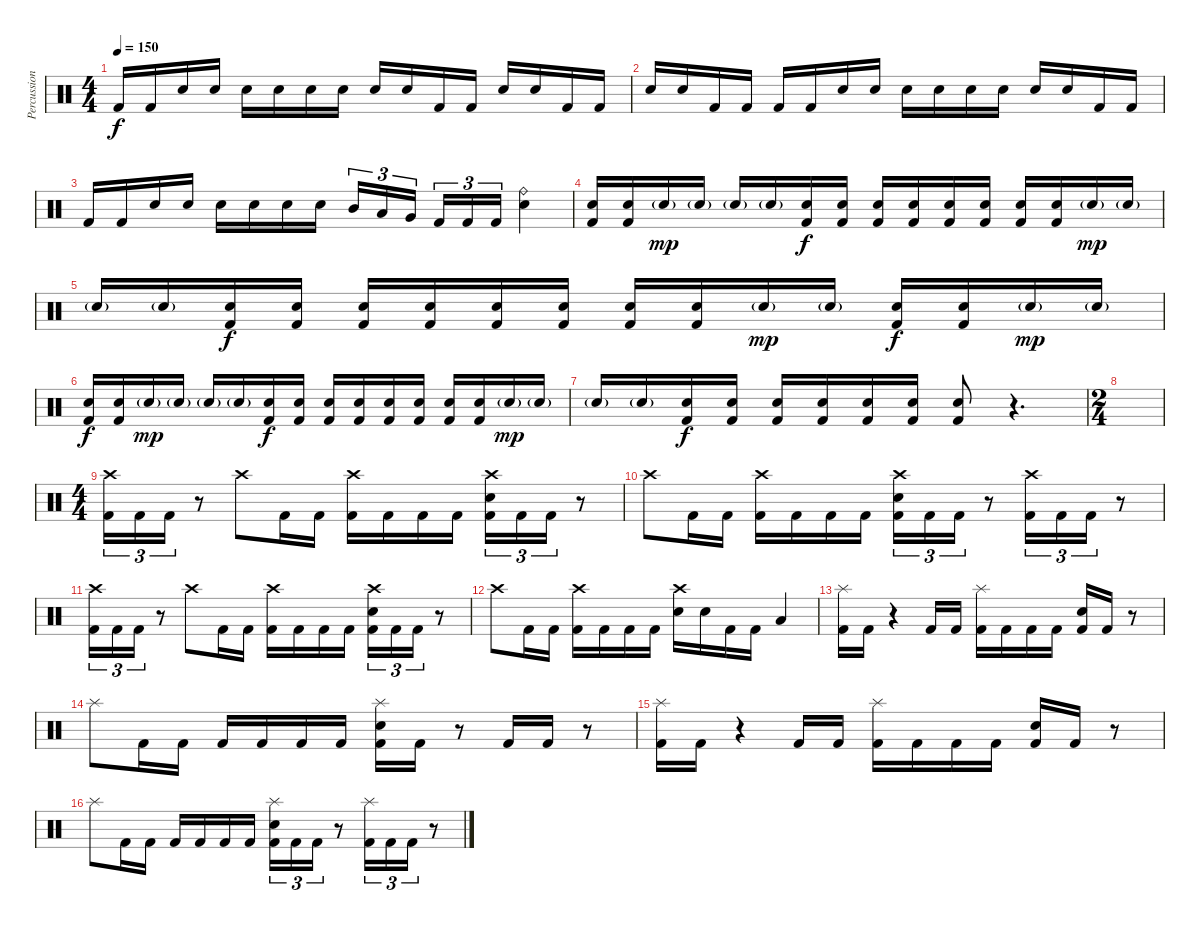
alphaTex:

\track ("Percussion" "Percussion") {instrument percussion}
\staff {score}
\articulation defaults
\ts (4 4)
\tempo 150
\clef neutral
\ks c "Kick (hit) 2".16{dy f} "Kick (hit) 2".16 "Electric Snare (hit)".16 "Electric Snare (hit)".16 "Electric Snare (hit)".16 "Electric Snare (hit)".16 "Electric Snare (hit)".16 "Electric Snare (hit)".16 "Electric Snare (hit)".16 "Electric Snare (hit)".16 "Kick (hit) 2".16 "Kick (hit) 2".16 "Electric Snare (hit)".16 "Electric Snare (hit)".16 "Kick (hit) 2".16 "Kick (hit) 2".16
|
"Electric Snare (hit)".16 "Electric Snare (hit)".16 "Kick (hit) 2".16 "Kick (hit) 2".16 "Kick (hit) 2".16 "Kick (hit) 2".16 "Electric Snare (hit)".16 "Electric Snare (hit)".16 "Electric Snare (hit)".16 "Electric Snare (hit)".16 "Electric Snare (hit)".16 "Electric Snare (hit)".16 "Electric Snare (hit)".16 "Electric Snare (hit)".16 "Kick (hit) 2".16 "Kick (hit) 2".16 |
"Kick (hit) 2".16 "Kick (hit) 2".16 "Electric Snare (hit)".16 "Electric Snare (hit)".16 "Electric Snare (hit)".16 "Electric Snare (hit)".16 "Electric Snare (hit)".16 "Electric Snare (hit)".16 "Mid Tom (hit)".16{tu (3 2)} "Low Tom (hit)".16{tu (3 2)} "Very Low Tom (hit)".16{tu (3 2) beam splitsecondary} "Kick (hit) 2".16{tu (3 2)} "Kick (hit) 2".16{tu (3 2)} "Kick (hit) 2".16{tu (3 2)} ("Ride (bell)" "Electric Snare (hit)").4 |
("Electric Snare (hit)" "Kick (hit) 2").16 ("Electric Snare (hit)" "Kick (hit) 2").16 "Electric Snare (hit)"{g}.16{dy mp} "Electric Snare (hit)"{g}.16 "Electric Snare (hit)"{g}.16 "Electric Snare (hit)"{g}.16 ("Electric Snare (hit)" "Kick (hit) 2").16{dy f} ("Electric Snare (hit)" "Kick (hit) 2").16 ("Electric Snare (hit)" "Kick (hit) 2").16 ("Electric Snare (hit)" "Kick (hit) 2").16 ("Electric Snare (hit)" "Kick (hit) 2").16 ("Electric Snare (hit)" "Kick (hit) 2").16 ("Electric Snare (hit)" "Kick (hit) 2").16 ("Electric Snare (hit)" "Kick (hit) 2").16 "Electric Snare (hit)"{g}.16{dy mp} "Electric Snare (hit)"{g}.16 |
"Electric Snare (hit)"{g}.16 "Electric Snare (hit)"{g}.16 ("Electric Snare (hit)" "Kick (hit) 2").16{dy f} ("Electric Snare (hit)" "Kick (hit) 2").16 ("Electric Snare (hit)" "Kick (hit) 2").16 ("Electric Snare (hit)" "Kick (hit) 2").16 ("Electric Snare (hit)" "Kick (hit) 2").16 ("Electric Snare (hit)" "Kick (hit) 2").16 ("Electric Snare (hit)" "Kick (hit) 2").16 ("Electric Snare (hit)" "Kick (hit) 2").16 "Electric Snare (hit)"{g}.16{dy mp} "Electric Snare (hit)"{g}.16 ("Electric Snare (hit)" "Kick (hit) 2").16{dy f} ("Electric Snare (hit)" "Kick (hit) 2").16 "Electric Snare (hit)"{g}.16{dy mp} "Electric Snare (hit)"{g}.16 |
("Electric Snare (hit)" "Kick (hit) 2").16{dy f} ("Electric Snare (hit)" "Kick (hit) 2").16 "Electric Snare (hit)"{g}.16{dy mp} "Electric Snare (hit)"{g}.16 "Electric Snare (hit)"{g}.16 "Electric Snare (hit)"{g}.16 ("Electric Snare (hit)" "Kick (hit) 2").16{dy f} ("Electric Snare (hit)" "Kick (hit) 2").16 ("Electric Snare (hit)" "Kick (hit) 2").16 ("Electric Snare (hit)" "Kick (hit) 2").16 ("Electric Snare (hit)" "Kick (hit) 2").16 ("Electric Snare (hit)" "Kick (hit) 2").16 ("Electric Snare (hit)" "Kick (hit) 2").16 ("Electric Snare (hit)" "Kick (hit) 2").16 "Electric Snare (hit)"{g}.16{dy mp} "Electric Snare (hit)"{g}.16 |
"Electric Snare (hit)"{g}.16 "Electric Snare (hit)"{g}.16 ("Electric Snare (hit)" "Kick (hit) 2").16{dy f} ("Electric Snare (hit)" "Kick (hit) 2").16 ("Electric Snare (hit)" "Kick (hit) 2").16 ("Electric Snare (hit)" "Kick (hit) 2").16 ("Electric Snare (hit)" "Kick (hit) 2").16 ("Electric Snare (hit)" "Kick (hit) 2").16 ("Electric Snare (hit)" "Kick (hit) 2").8 r.4{d} |
\ts (2 4)
|
\ts (4 4)
("Crash high (hit)" "Kick (hit) 2").16{tu (3 2)} "Kick (hit) 2".16{tu (3 2)} "Kick (hit) 2".16{tu (3 2)} r.8 "Crash high (hit)".8 "Kick (hit) 2".16 "Kick (hit) 2".16 ("Crash high (hit)" "Kick (hit) 2").16 "Kick (hit) 2".16 "Kick (hit) 2".16 "Kick (hit) 2".16 ("Crash high (hit)" "Electric Snare (hit)" "Kick (hit) 2").16{tu (3 2)} "Kick (hit) 2".16{tu (3 2)} "Kick (hit) 2".16{tu (3 2)} r.8 |
"Crash high (hit)".8 "Kick (hit) 2".16 "Kick (hit) 2".16 ("Crash high (hit)" "Kick (hit) 2").16 "Kick (hit) 2".16 "Kick (hit) 2".16 "Kick (hit) 2".16 ("Crash high (hit)" "Electric Snare (hit)" "Kick (hit) 2").16{tu (3 2)} "Kick (hit) 2".16{tu (3 2)} "Kick (hit) 2".16{tu (3 2)} r.8 ("Crash high (hit)" "Kick (hit) 2").16{tu (3 2)} "Kick (hit) 2".16{tu (3 2)} "Kick (hit) 2".16{tu (3 2)} r.8 |
("Crash high (hit)" "Kick (hit) 2").16{tu (3 2)} "Kick (hit) 2".16{tu (3 2)} "Kick (hit) 2".16{tu (3 2)} r.8 "Crash high (hit)".8 "Kick (hit) 2".16 "Kick (hit) 2".16 ("Crash high (hit)" "Kick (hit) 2").16 "Kick (hit) 2".16 "Kick (hit) 2".16 "Kick (hit) 2".16 ("Crash high (hit)" "Electric Snare (hit)" "Kick (hit) 2").16{tu (3 2)} "Kick (hit) 2".16{tu (3 2)} "Kick (hit) 2".16{tu (3 2)} r.8 |
"Crash high (hit)".8 "Kick (hit) 2".16 "Kick (hit) 2".16 ("Crash high (hit)" "Kick (hit) 2").16 "Kick (hit) 2".16 "Kick (hit) 2".16 "Kick (hit) 2".16 ("Crash high (hit)" "Electric Snare (hit)").16 "Electric Snare (hit)".16 "Kick (hit) 2".16 "Kick (hit) 2".16 "Low Floor Tom (hit)".4 |
("Splash (hit)" "Kick (hit) 2").16 "Kick (hit) 2".16 r.4 "Kick (hit) 2".16 "Kick (hit) 2".16 ("Splash (hit)" "Kick (hit) 2").16 "Kick (hit) 2".16 "Kick (hit) 2".16 "Kick (hit) 2".16 ("Electric Snare (hit)" "Kick (hit) 2").16 "Kick (hit) 2".16 r.8 |
"Splash (hit)".8 "Kick (hit) 2".16 "Kick (hit) 2".16 "Kick (hit) 2".16 "Kick (hit) 2".16 "Kick (hit) 2".16 "Kick (hit) 2".16 ("Splash (hit)" "Electric Snare (hit)" "Kick (hit) 2").16 "Kick (hit) 2".16 r.8 "Kick (hit) 2".16 "Kick (hit) 2".16 r.8 |
("Splash (hit)" "Kick (hit) 2").16 "Kick (hit) 2".16 r.4 "Kick (hit) 2".16 "Kick (hit) 2".16 ("Splash (hit)" "Kick (hit) 2").16 "Kick (hit) 2".16 "Kick (hit) 2".16 "Kick (hit) 2".16 ("Electric Snare (hit)" "Kick (hit) 2").16 "Kick (hit) 2".16 r.8 |
"Splash (hit)".8 "Kick (hit) 2".16 "Kick (hit) 2".16 "Kick (hit) 2".16 "Kick (hit) 2".16 "Kick (hit) 2".16 "Kick (hit) 2".16 ("Splash (hit)" "Electric Snare (hit)" "Kick (hit) 2").16{tu (3 2)} "Kick (hit) 2".16{tu (3 2)} "Kick (hit) 2".16{tu (3 2)} r.8 ("Splash (hit)" "Kick (hit) 2").16{tu (3 2)} "Kick (hit) 2".16{tu (3 2)} "Kick (hit) 2".16{tu (3 2)} r.8
